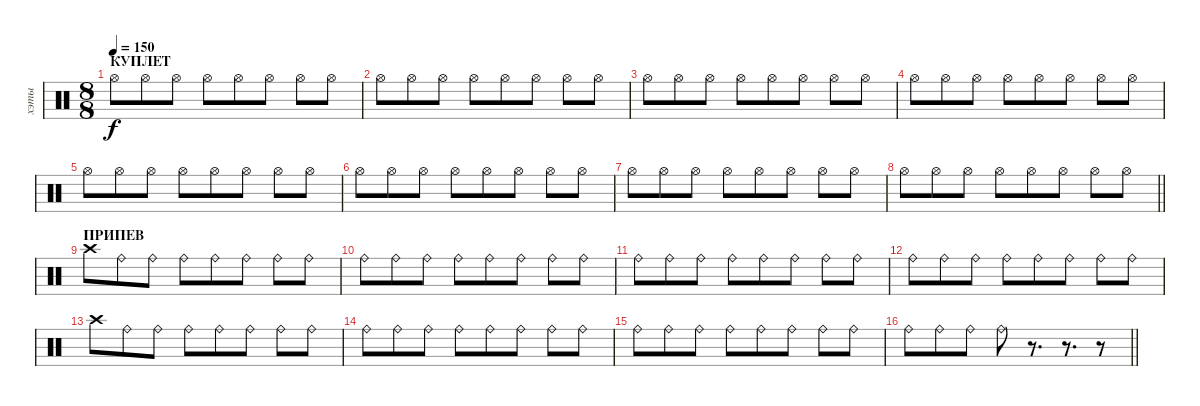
\track ("хэты" "хэты") {instrument percussion}
\staff {score}
\articulation defaults
\ts (8 8)
\section ("" "КУПЛЕТ")
\tempo 150
\clef neutral
\ks c "Hi-Hat (open)".8{dy f} "Hi-Hat (open)".8 "Hi-Hat (open)".8 "Hi-Hat (open)".8 "Hi-Hat (open)".8 "Hi-Hat (open)".8 "Hi-Hat (open)".8 "Hi-Hat (open)".8
|
"Hi-Hat (open)".8 "Hi-Hat (open)".8 "Hi-Hat (open)".8 "Hi-Hat (open)".8 "Hi-Hat (open)".8 "Hi-Hat (open)".8 "Hi-Hat (open)".8 "Hi-Hat (open)".8 |
"Hi-Hat (open)".8 "Hi-Hat (open)".8 "Hi-Hat (open)".8 "Hi-Hat (open)".8 "Hi-Hat (open)".8 "Hi-Hat (open)".8 "Hi-Hat (open)".8 "Hi-Hat (open)".8 |
"Hi-Hat (open)".8 "Hi-Hat (open)".8 "Hi-Hat (open)".8 "Hi-Hat (open)".8 "Hi-Hat (open)".8 "Hi-Hat (open)".8 "Hi-Hat (open)".8 "Hi-Hat (open)".8 |
"Hi-Hat (open)".8 "Hi-Hat (open)".8 "Hi-Hat (open)".8 "Hi-Hat (open)".8 "Hi-Hat (open)".8 "Hi-Hat (open)".8 "Hi-Hat (open)".8 "Hi-Hat (open)".8 |
"Hi-Hat (open)".8 "Hi-Hat (open)".8 "Hi-Hat (open)".8 "Hi-Hat (open)".8 "Hi-Hat (open)".8 "Hi-Hat (open)".8 "Hi-Hat (open)".8 "Hi-Hat (open)".8 |
"Hi-Hat (open)".8 "Hi-Hat (open)".8 "Hi-Hat (open)".8 "Hi-Hat (open)".8 "Hi-Hat (open)".8 "Hi-Hat (open)".8 "Hi-Hat (open)".8 "Hi-Hat (open)".8 |
\barLineRight lightlight "Hi-Hat (open)".8 "Hi-Hat (open)".8 "Hi-Hat (open)".8 "Hi-Hat (open)".8 "Hi-Hat (open)".8 "Hi-Hat (open)".8 "Hi-Hat (open)".8 "Hi-Hat (open)".8
|
\section ("" "ПРИПЕВ")
"Crash high (hit)".8 "Ride (bell)".8 "Ride (bell)".8 "Ride (bell)".8 "Ride (bell)".8 "Ride (bell)".8 "Ride (bell)".8 "Ride (bell)".8 |
"Ride (bell)".8 "Ride (bell)".8 "Ride (bell)".8 "Ride (bell)".8 "Ride (bell)".8 "Ride (bell)".8 "Ride (bell)".8 "Ride (bell)".8 |
"Ride (bell)".8 "Ride (bell)".8 "Ride (bell)".8 "Ride (bell)".8 "Ride (bell)".8 "Ride (bell)".8 "Ride (bell)".8 "Ride (bell)".8 |
"Ride (bell)".8 "Ride (bell)".8 "Ride (bell)".8 "Ride (bell)".8 "Ride (bell)".8 "Ride (bell)".8 "Ride (bell)".8 "Ride (bell)".8 |
"Crash high (hit)".8 "Ride (bell)".8 "Ride (bell)".8 "Ride (bell)".8 "Ride (bell)".8 "Ride (bell)".8 "Ride (bell)".8 "Ride (bell)".8 |
"Ride (bell)".8 "Ride (bell)".8 "Ride (bell)".8 "Ride (bell)".8 "Ride (bell)".8 "Ride (bell)".8 "Ride (bell)".8 "Ride (bell)".8 |
"Ride (bell)".8 "Ride (bell)".8 "Ride (bell)".8 "Ride (bell)".8 "Ride (bell)".8 "Ride (bell)".8 "Ride (bell)".8 "Ride (bell)".8 |
\barLineRight lightlight "Ride (bell)".8 "Ride (bell)".8 "Ride (bell)".8 "Ride (bell)".8
r.8{d} r.8{d} r.8
